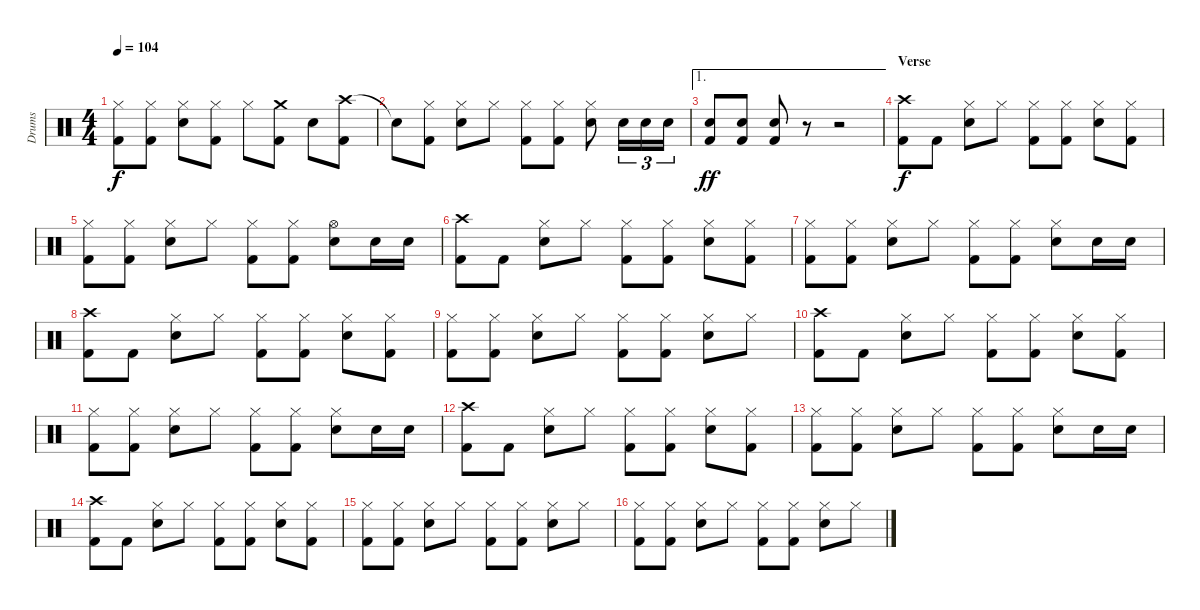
\track ("Drums" "Drums") {instrument percussion}
\staff {score}
\articulation defaults
\ts (4 4)
\tempo 104
\clef neutral
\ks c
("Hi-Hat (closed)" "Kick (hit) 2").8{dy f} ("Hi-Hat (closed)" "Kick (hit) 2").8 ("Hi-Hat (closed)" "Electric Snare (hit)").8 ("Hi-Hat (closed)" "Kick (hit) 2").8 "Hi-Hat (closed)".8 ("Crash medium (hit)" "Kick (hit) 2").8 "Electric Snare (hit)".8 ("Crash high (hit)" "Kick (hit) 2").8 |
"Snare (hit)"{t}.8 ("Hi-Hat (closed)" "Kick (hit) 2").8 ("Hi-Hat (closed)" "Electric Snare (hit)").8 "Hi-Hat (closed)".8 ("Hi-Hat (closed)" "Kick (hit) 2").8 ("Hi-Hat (closed)" "Kick (hit) 2").8 ("Hi-Hat (closed)" "Electric Snare (hit)").8 "Electric Snare (hit)".16{tu (3 2)} "Electric Snare (hit)".16{tu (3 2)} "Electric Snare (hit)".16{tu (3 2)} |
\ae 1
("Electric Snare (hit)" "Kick (hit) 2").8{dy ff} ("Electric Snare (hit)" "Kick (hit) 2").8 ("Electric Snare (hit)" "Kick (hit) 2").8 r.8 r.2 |
\section ("" "Verse")
("Crash high (hit)" "Kick (hit) 2").8{dy f} "Kick (hit) 2".8 ("Hi-Hat (closed)" "Electric Snare (hit)").8 "Hi-Hat (closed)".8 ("Hi-Hat (closed)" "Kick (hit) 2").8 ("Hi-Hat (closed)" "Kick (hit) 2").8 ("Hi-Hat (closed)" "Electric Snare (hit)").8 ("Hi-Hat (closed)" "Kick (hit) 2").8 |
("Hi-Hat (closed)" "Kick (hit) 2").8 ("Hi-Hat (closed)" "Kick (hit) 2").8 ("Hi-Hat (closed)" "Electric Snare (hit)").8 "Hi-Hat (closed)".8 ("Hi-Hat (closed)" "Kick (hit) 2").8 ("Hi-Hat (closed)" "Kick (hit) 2").8 ("Hi-Hat (open)" "Electric Snare (hit)").8 "Electric Snare (hit)".16 "Electric Snare (hit)".16 |
("Crash high (hit)" "Kick (hit) 2").8 "Kick (hit) 2".8 ("Hi-Hat (closed)" "Electric Snare (hit)").8 "Hi-Hat (closed)".8 ("Hi-Hat (closed)" "Kick (hit) 2").8 ("Hi-Hat (closed)" "Kick (hit) 2").8 ("Hi-Hat (closed)" "Electric Snare (hit)").8 ("Hi-Hat (closed)" "Kick (hit) 2").8 |
("Hi-Hat (closed)" "Kick (hit) 2").8 ("Hi-Hat (closed)" "Kick (hit) 2").8 ("Hi-Hat (closed)" "Electric Snare (hit)").8 "Hi-Hat (closed)".8 ("Hi-Hat (closed)" "Kick (hit) 2").8 ("Hi-Hat (closed)" "Kick (hit) 2").8 ("Hi-Hat (closed)" "Electric Snare (hit)").8 "Electric Snare (hit)".16 "Electric Snare (hit)".16 |
("Crash high (hit)" "Kick (hit) 2").8 "Kick (hit) 2".8 ("Hi-Hat (closed)" "Electric Snare (hit)").8 "Hi-Hat (closed)".8 ("Hi-Hat (closed)" "Kick (hit) 2").8 ("Hi-Hat (closed)" "Kick (hit) 2").8 ("Hi-Hat (closed)" "Electric Snare (hit)").8 ("Hi-Hat (closed)" "Kick (hit) 2").8 |
("Hi-Hat (closed)" "Kick (hit) 2").8 ("Hi-Hat (closed)" "Kick (hit) 2").8 ("Hi-Hat (closed)" "Electric Snare (hit)").8 "Hi-Hat (closed)".8 ("Hi-Hat (closed)" "Kick (hit) 2").8 ("Hi-Hat (closed)" "Kick (hit) 2").8 ("Hi-Hat (closed)" "Electric Snare (hit)").8 "Hi-Hat (closed)".8 |
("Crash high (hit)" "Kick (hit) 2").8 "Kick (hit) 2".8 ("Hi-Hat (closed)" "Electric Snare (hit)").8 "Hi-Hat (closed)".8 ("Hi-Hat (closed)" "Kick (hit) 2").8 ("Hi-Hat (closed)" "Kick (hit) 2").8 ("Hi-Hat (closed)" "Electric Snare (hit)").8 ("Hi-Hat (closed)" "Kick (hit) 2").8 |
("Hi-Hat (closed)" "Kick (hit) 2").8 ("Hi-Hat (closed)" "Kick (hit) 2").8 ("Hi-Hat (closed)" "Electric Snare (hit)").8 "Hi-Hat (closed)".8 ("Hi-Hat (closed)" "Kick (hit) 2").8 ("Hi-Hat (closed)" "Kick (hit) 2").8 ("Hi-Hat (closed)" "Electric Snare (hit)").8 "Electric Snare (hit)".16 "Electric Snare (hit)".16 |
("Crash high (hit)" "Kick (hit) 2").8 "Kick (hit) 2".8 ("Hi-Hat (closed)" "Electric Snare (hit)").8 "Hi-Hat (closed)".8 ("Hi-Hat (closed)" "Kick (hit) 2").8 ("Hi-Hat (closed)" "Kick (hit) 2").8 ("Hi-Hat (closed)" "Electric Snare (hit)").8 ("Hi-Hat (closed)" "Kick (hit) 2").8 |
("Hi-Hat (closed)" "Kick (hit) 2").8 ("Hi-Hat (closed)" "Kick (hit) 2").8 ("Hi-Hat (closed)" "Electric Snare (hit)").8 "Hi-Hat (closed)".8 ("Hi-Hat (closed)" "Kick (hit) 2").8 ("Hi-Hat (closed)" "Kick (hit) 2").8 ("Hi-Hat (closed)" "Electric Snare (hit)").8 "Electric Snare (hit)".16 "Electric Snare (hit)".16 |
("Crash high (hit)" "Kick (hit) 2").8 "Kick (hit) 2".8 ("Hi-Hat (closed)" "Electric Snare (hit)").8 "Hi-Hat (closed)".8 ("Hi-Hat (closed)" "Kick (hit) 2").8 ("Hi-Hat (closed)" "Kick (hit) 2").8 ("Hi-Hat (closed)" "Electric Snare (hit)").8 ("Hi-Hat (closed)" "Kick (hit) 2").8 |
("Hi-Hat (closed)" "Kick (hit) 2").8 ("Hi-Hat (closed)" "Kick (hit) 2").8 ("Hi-Hat (closed)" "Electric Snare (hit)").8 "Hi-Hat (closed)".8 ("Hi-Hat (closed)" "Kick (hit) 2").8 ("Hi-Hat (closed)" "Kick (hit) 2").8 ("Hi-Hat (closed)" "Electric Snare (hit)").8 "Hi-Hat (closed)".8 |
("Hi-Hat (closed)" "Kick (hit) 2").8 ("Hi-Hat (closed)" "Kick (hit) 2").8 ("Hi-Hat (closed)" "Electric Snare (hit)").8 "Hi-Hat (closed)".8 ("Hi-Hat (closed)" "Kick (hit) 2").8 ("Hi-Hat (closed)" "Kick (hit) 2").8 ("Hi-Hat (closed)" "Electric Snare (hit)").8 "Hi-Hat (closed)".8
